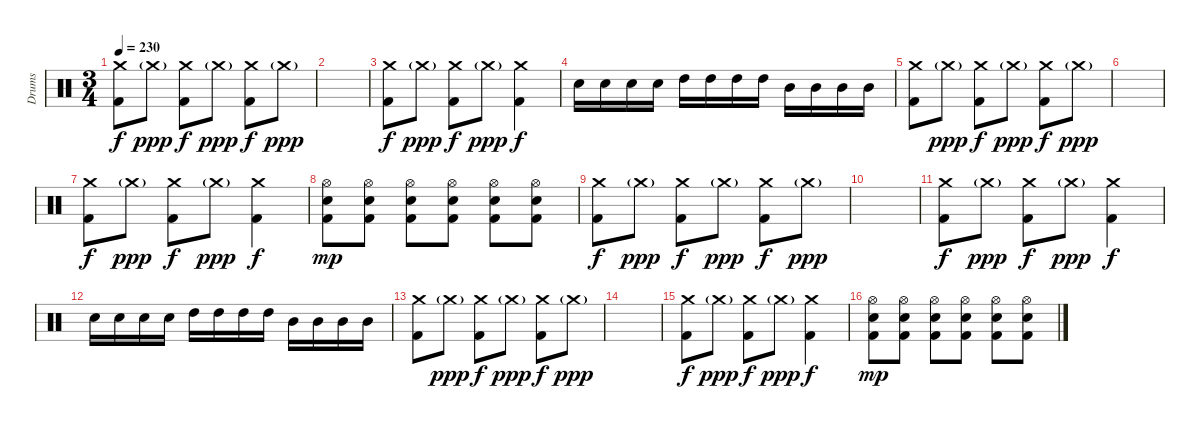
\track ("Drums" "Drums") {instrument percussion}
\staff {score}
\articulation defaults
\ts (3 4)
\tempo 230
\clef neutral
\ks c
("Crash medium (hit)" "Kick (hit) 2").8{dy f} "Crash medium (hit)"{g}.8{dy ppp} ("Crash medium (hit)" "Kick (hit) 2").8{dy f} "Crash medium (hit)"{g}.8{dy ppp} ("Crash medium (hit)" "Kick (hit) 2").8{dy f} "Crash medium (hit)"{g}.8{dy ppp} |
|
("Crash medium (hit)" "Kick (hit) 2").8{dy f} "Crash medium (hit)"{g}.8{dy ppp} ("Crash medium (hit)" "Kick (hit) 2").8{dy f} "Crash medium (hit)"{g}.8{dy ppp} ("Crash medium (hit)" "Kick (hit) 2").4{dy f} |
"Electric Snare (hit)".16 "Electric Snare (hit)".16 "Electric Snare (hit)".16 "Electric Snare (hit)".16 "High Tom (hit)".16 "High Tom (hit)".16 "High Tom (hit)".16 "High Tom (hit)".16 "Mid Tom (hit)".16 "Mid Tom (hit)".16 "Mid Tom (hit)".16 "Mid Tom (hit)".16 |
("Crash medium (hit)" "Kick (hit) 2").8 "Crash medium (hit)"{g}.8{dy ppp} ("Crash medium (hit)" "Kick (hit) 2").8{dy f} "Crash medium (hit)"{g}.8{dy ppp} ("Crash medium (hit)" "Kick (hit) 2").8{dy f} "Crash medium (hit)"{g}.8{dy ppp} |
|
("Crash medium (hit)" "Kick (hit) 2").8{dy f} "Crash medium (hit)"{g}.8{dy ppp} ("Crash medium (hit)" "Kick (hit) 2").8{dy f} "Crash medium (hit)"{g}.8{dy ppp} ("Crash medium (hit)" "Kick (hit) 2").4{dy f} |
("Hi-Hat (open)" "Electric Snare (hit)" "Kick (hit) 2").8{dy mp} ("Hi-Hat (open)" "Electric Snare (hit)" "Kick (hit) 2").8 ("Hi-Hat (open)" "Electric Snare (hit)" "Kick (hit) 2").8 ("Hi-Hat (open)" "Electric Snare (hit)" "Kick (hit) 2").8 ("Hi-Hat (open)" "Electric Snare (hit)" "Kick (hit) 2").8 ("Hi-Hat (open)" "Electric Snare (hit)" "Kick (hit) 2").8 |
("Crash medium (hit)" "Kick (hit) 2").8{dy f} "Crash medium (hit)"{g}.8{dy ppp} ("Crash medium (hit)" "Kick (hit) 2").8{dy f} "Crash medium (hit)"{g}.8{dy ppp} ("Crash medium (hit)" "Kick (hit) 2").8{dy f} "Crash medium (hit)"{g}.8{dy ppp} |
|
("Crash medium (hit)" "Kick (hit) 2").8{dy f} "Crash medium (hit)"{g}.8{dy ppp} ("Crash medium (hit)" "Kick (hit) 2").8{dy f} "Crash medium (hit)"{g}.8{dy ppp} ("Crash medium (hit)" "Kick (hit) 2").4{dy f} |
"Electric Snare (hit)".16 "Electric Snare (hit)".16 "Electric Snare (hit)".16 "Electric Snare (hit)".16 "High Tom (hit)".16 "High Tom (hit)".16 "High Tom (hit)".16 "High Tom (hit)".16 "Mid Tom (hit)".16 "Mid Tom (hit)".16 "Mid Tom (hit)".16 "Mid Tom (hit)".16 |
("Crash medium (hit)" "Kick (hit) 2").8 "Crash medium (hit)"{g}.8{dy ppp} ("Crash medium (hit)" "Kick (hit) 2").8{dy f} "Crash medium (hit)"{g}.8{dy ppp} ("Crash medium (hit)" "Kick (hit) 2").8{dy f} "Crash medium (hit)"{g}.8{dy ppp} |
|
("Crash medium (hit)" "Kick (hit) 2").8{dy f} "Crash medium (hit)"{g}.8{dy ppp} ("Crash medium (hit)" "Kick (hit) 2").8{dy f} "Crash medium (hit)"{g}.8{dy ppp} ("Crash medium (hit)" "Kick (hit) 2").4{dy f} |
("Hi-Hat (open)" "Electric Snare (hit)" "Kick (hit) 2").8{dy mp} ("Hi-Hat (open)" "Electric Snare (hit)" "Kick (hit) 2").8 ("Hi-Hat (open)" "Electric Snare (hit)" "Kick (hit) 2").8 ("Hi-Hat (open)" "Electric Snare (hit)" "Kick (hit) 2").8 ("Hi-Hat (open)" "Electric Snare (hit)" "Kick (hit) 2").8 ("Hi-Hat (open)" "Electric Snare (hit)" "Kick (hit) 2").8
